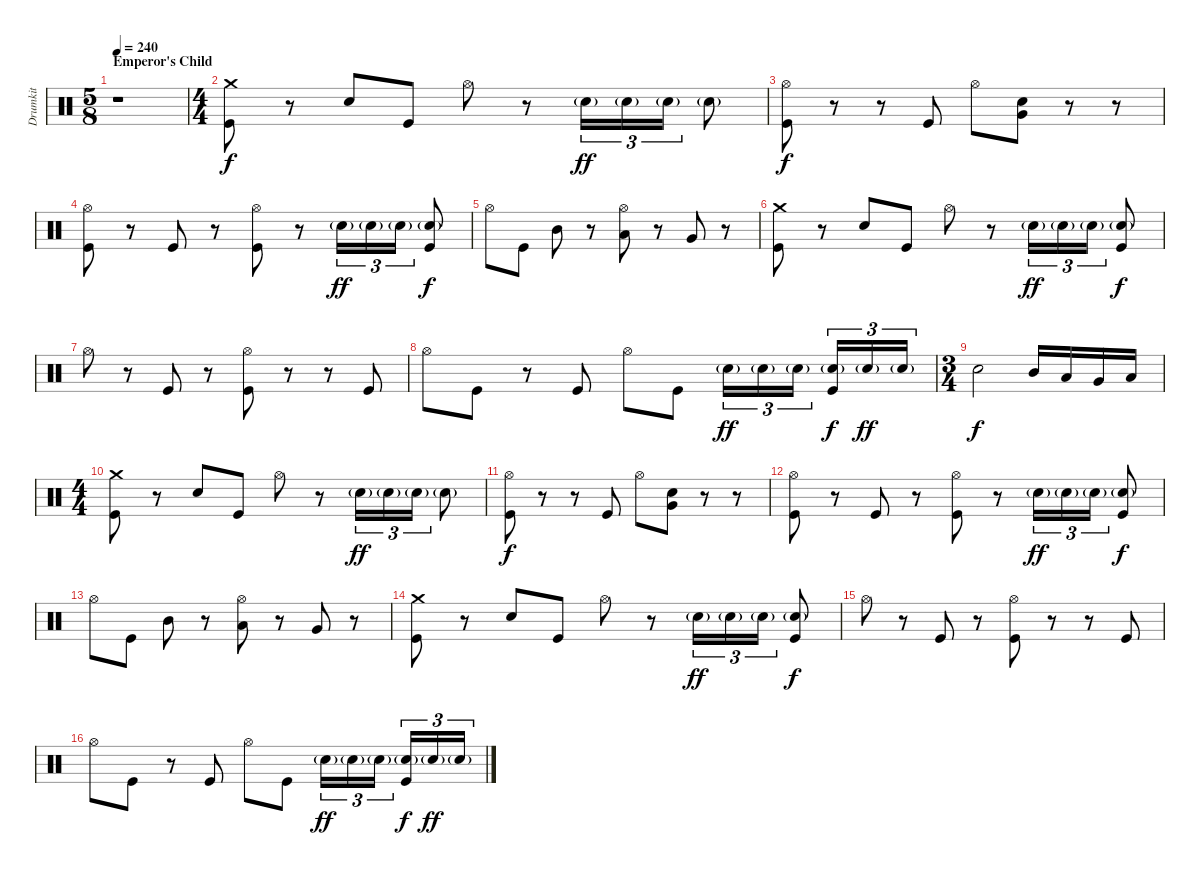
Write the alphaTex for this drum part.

\track ("Drumkit" "Drumkit") {instrument percussion}
\staff {score}
\articulation defaults
\ts (5 8)
\section ("" "Emperor's Child")
\tempo 240
\clef neutral
\ks c
r.1{dy f} |
\ts (4 4)
("Crash medium (hit)" "Kick (hit)").8 r.8 "Snare (hit) 2".8 "Kick (hit)".8 "Hi-Hat (open)".8 r.8 "Snare (hit) 2"{g}.16{tu (3 2) dy ff} "Snare (hit) 2"{g}.16{tu (3 2)} "Snare (hit) 2"{g}.16{tu (3 2)} "Snare (hit) 2"{g}.8 |
("Hi-Hat (open)" "Kick (hit)").8{dy f} r.8 r.8 "Kick (hit)".8 "Hi-Hat (open)".8 ("Snare (hit) 2" "Very Low Tom (hit)").8 r.8 r.8 |
("Hi-Hat (open)" "Kick (hit)").8 r.8 "Kick (hit)".8 r.8 ("Hi-Hat (open)" "Kick (hit)").8 r.8 "Snare (hit) 2"{g}.16{tu (3 2) dy ff} "Snare (hit) 2"{g}.16{tu (3 2)} "Snare (hit) 2"{g}.16{tu (3 2)} ("Snare (hit) 2"{g} "Kick (hit)").8{dy f} |
"Hi-Hat (open)".8 "Kick (hit)".8 "Mid Tom (hit)".8 r.8 ("Hi-Hat (open)" "Low Tom (hit)").8 r.8 "Very Low Tom (hit)".8 r.8 |
("Crash medium (hit)" "Kick (hit)").8 r.8 "Snare (hit) 2".8 "Kick (hit)".8 "Hi-Hat (open)".8 r.8 "Snare (hit) 2"{g}.16{tu (3 2) dy ff} "Snare (hit) 2"{g}.16{tu (3 2)} "Snare (hit) 2"{g}.16{tu (3 2)} ("Snare (hit) 2"{g} "Kick (hit)").8{dy f} |
"Hi-Hat (open)".8 r.8 "Kick (hit)".8 r.8 ("Hi-Hat (open)" "Kick (hit)").8 r.8 r.8 "Kick (hit)".8 |
"Hi-Hat (open)".8 "Kick (hit)".8 r.8 "Kick (hit)".8 "Hi-Hat (open)".8 "Kick (hit)".8 "Snare (hit) 2"{g}.16{tu (3 2) dy ff} "Snare (hit) 2"{g}.16{tu (3 2)} "Snare (hit) 2"{g}.16{tu (3 2) beam splitsecondary} ("Snare (hit) 2"{g} "Kick (hit)").16{tu (3 2) dy f} "Snare (hit) 2"{g}.16{tu (3 2) dy ff} "Snare (hit) 2"{g}.16{tu (3 2)} |
\ts (3 4)
"Snare (hit) 2".2{dy f} "Mid Tom (hit)".16 "Low Tom (hit)".16 "Very Low Tom (hit)".16 "Low Floor Tom (hit)".16 |
\ts (4 4)
("Crash medium (hit)" "Kick (hit)").8 r.8 "Snare (hit) 2".8 "Kick (hit)".8 "Hi-Hat (open)".8 r.8 "Snare (hit) 2"{g}.16{tu (3 2) dy ff} "Snare (hit) 2"{g}.16{tu (3 2)} "Snare (hit) 2"{g}.16{tu (3 2)} "Snare (hit) 2"{g}.8 |
("Hi-Hat (open)" "Kick (hit)").8{dy f} r.8 r.8 "Kick (hit)".8 "Hi-Hat (open)".8 ("Snare (hit) 2" "Very Low Tom (hit)").8 r.8 r.8 |
("Hi-Hat (open)" "Kick (hit)").8 r.8 "Kick (hit)".8 r.8 ("Hi-Hat (open)" "Kick (hit)").8 r.8 "Snare (hit) 2"{g}.16{tu (3 2) dy ff} "Snare (hit) 2"{g}.16{tu (3 2)} "Snare (hit) 2"{g}.16{tu (3 2)} ("Snare (hit) 2"{g} "Kick (hit)").8{dy f} |
"Hi-Hat (open)".8 "Kick (hit)".8 "Mid Tom (hit)".8 r.8 ("Hi-Hat (open)" "Low Tom (hit)").8 r.8 "Very Low Tom (hit)".8 r.8 |
("Crash medium (hit)" "Kick (hit)").8 r.8 "Snare (hit) 2".8 "Kick (hit)".8 "Hi-Hat (open)".8 r.8 "Snare (hit) 2"{g}.16{tu (3 2) dy ff} "Snare (hit) 2"{g}.16{tu (3 2)} "Snare (hit) 2"{g}.16{tu (3 2)} ("Snare (hit) 2"{g} "Kick (hit)").8{dy f} |
"Hi-Hat (open)".8 r.8 "Kick (hit)".8 r.8 ("Hi-Hat (open)" "Kick (hit)").8 r.8 r.8 "Kick (hit)".8 |
"Hi-Hat (open)".8 "Kick (hit)".8 r.8 "Kick (hit)".8 "Hi-Hat (open)".8 "Kick (hit)".8 "Snare (hit) 2"{g}.16{tu (3 2) dy ff} "Snare (hit) 2"{g}.16{tu (3 2)} "Snare (hit) 2"{g}.16{tu (3 2) beam splitsecondary} ("Snare (hit) 2"{g} "Kick (hit)").16{tu (3 2) dy f} "Snare (hit) 2"{g}.16{tu (3 2) dy ff} "Snare (hit) 2"{g}.16{tu (3 2)}
